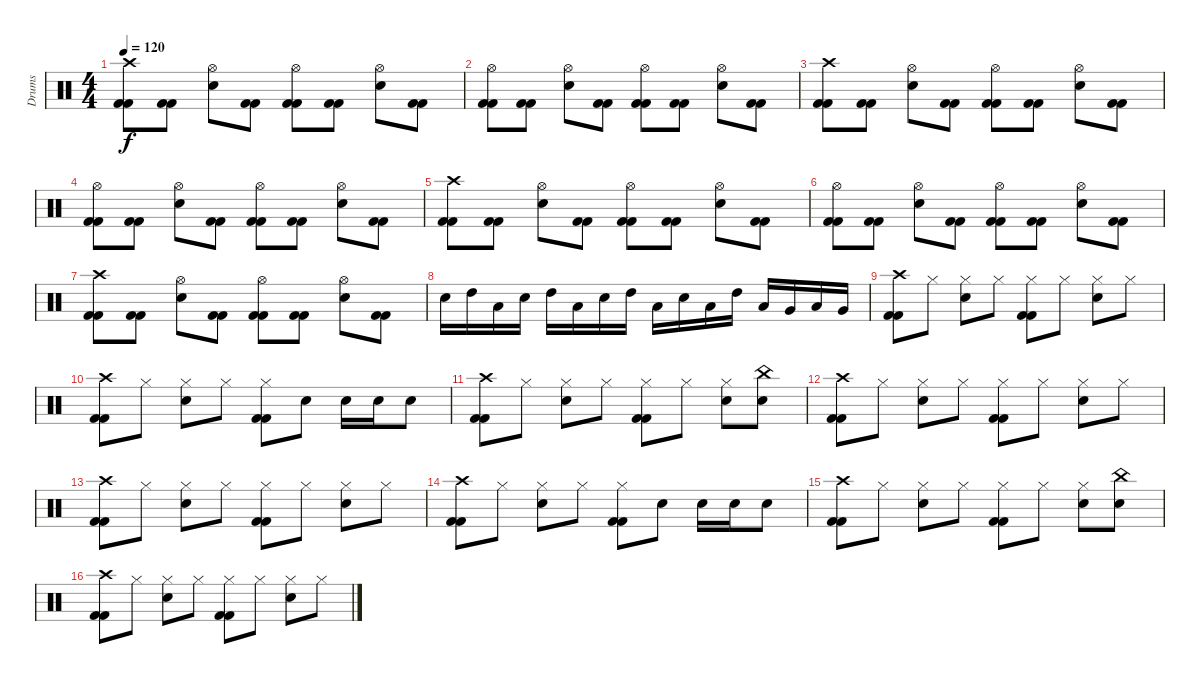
\track ("Drums" "Drums") {instrument percussion}
\staff {score}
\articulation defaults
\ts (4 4)
\tempo 120
\clef neutral
\ks c
("Crash high (hit)" "Kick (hit) 2" "Kick (hit) 2").8{dy f} ("Kick (hit) 2" "Kick (hit) 2").8 ("Hi-Hat (open)" "Electric Snare (hit)").8 ("Kick (hit) 2" "Kick (hit) 2").8 ("Hi-Hat (open)" "Kick (hit) 2" "Kick (hit) 2").8 ("Kick (hit) 2" "Kick (hit) 2").8 ("Electric Snare (hit)" "Hi-Hat (open)").8 ("Kick (hit) 2" "Kick (hit) 2").8 |
("Hi-Hat (open)" "Kick (hit) 2" "Kick (hit) 2").8 ("Kick (hit) 2" "Kick (hit) 2").8 ("Hi-Hat (open)" "Electric Snare (hit)").8 ("Kick (hit) 2" "Kick (hit) 2").8 ("Hi-Hat (open)" "Kick (hit) 2" "Kick (hit) 2").8 ("Kick (hit) 2" "Kick (hit) 2").8 ("Electric Snare (hit)" "Hi-Hat (open)").8 ("Kick (hit) 2" "Kick (hit) 2").8 |
("Crash high (hit)" "Kick (hit) 2" "Kick (hit) 2").8 ("Kick (hit) 2" "Kick (hit) 2").8 ("Hi-Hat (open)" "Electric Snare (hit)").8 ("Kick (hit) 2" "Kick (hit) 2").8 ("Hi-Hat (open)" "Kick (hit) 2" "Kick (hit) 2").8 ("Kick (hit) 2" "Kick (hit) 2").8 ("Electric Snare (hit)" "Hi-Hat (open)").8 ("Kick (hit) 2" "Kick (hit) 2").8 |
("Hi-Hat (open)" "Kick (hit) 2" "Kick (hit) 2").8 ("Kick (hit) 2" "Kick (hit) 2").8 ("Hi-Hat (open)" "Electric Snare (hit)").8 ("Kick (hit) 2" "Kick (hit) 2").8 ("Hi-Hat (open)" "Kick (hit) 2" "Kick (hit) 2").8 ("Kick (hit) 2" "Kick (hit) 2").8 ("Electric Snare (hit)" "Hi-Hat (open)").8 ("Kick (hit) 2" "Kick (hit) 2").8 |
("Crash high (hit)" "Kick (hit) 2" "Kick (hit) 2").8 ("Kick (hit) 2" "Kick (hit) 2").8 ("Hi-Hat (open)" "Electric Snare (hit)").8 ("Kick (hit) 2" "Kick (hit) 2").8 ("Hi-Hat (open)" "Kick (hit) 2" "Kick (hit) 2").8 ("Kick (hit) 2" "Kick (hit) 2").8 ("Electric Snare (hit)" "Hi-Hat (open)").8 ("Kick (hit) 2" "Kick (hit) 2").8 |
("Hi-Hat (open)" "Kick (hit) 2" "Kick (hit) 2").8 ("Kick (hit) 2" "Kick (hit) 2").8 ("Hi-Hat (open)" "Electric Snare (hit)").8 ("Kick (hit) 2" "Kick (hit) 2").8 ("Hi-Hat (open)" "Kick (hit) 2" "Kick (hit) 2").8 ("Kick (hit) 2" "Kick (hit) 2").8 ("Electric Snare (hit)" "Hi-Hat (open)").8 ("Kick (hit) 2" "Kick (hit) 2").8 |
("Crash high (hit)" "Kick (hit) 2" "Kick (hit) 2").8 ("Kick (hit) 2" "Kick (hit) 2").8 ("Hi-Hat (open)" "Electric Snare (hit)").8 ("Kick (hit) 2" "Kick (hit) 2").8 ("Hi-Hat (open)" "Kick (hit) 2" "Kick (hit) 2").8 ("Kick (hit) 2" "Kick (hit) 2").8 ("Electric Snare (hit)" "Hi-Hat (open)").8 ("Kick (hit) 2" "Kick (hit) 2").8 |
"Electric Snare (hit)".16 "High Tom (hit)".16 "Low Tom (hit)".16 "Electric Snare (hit)".16 "High Tom (hit)".16 "Low Tom (hit)".16 "Electric Snare (hit)".16 "High Tom (hit)".16 "Low Tom (hit)".16 "Electric Snare (hit)".16 "Low Tom (hit)".16 "High Tom (hit)".16 "Low Tom (hit)".16 "Very Low Tom (hit)".16 "Low Floor Tom (hit)".16 "Very Low Tom (hit)".16 |
("Crash high (hit)" "Kick (hit) 2" "Kick (hit) 2").8 "Hi-Hat (closed)".8 ("Electric Snare (hit)" "Hi-Hat (closed)").8 "Hi-Hat (closed)".8 ("Hi-Hat (closed)" "Kick (hit) 2" "Kick (hit) 2").8 "Hi-Hat (closed)".8 ("Electric Snare (hit)" "Hi-Hat (closed)").8 "Hi-Hat (closed)".8 |
("Crash high (hit)" "Kick (hit) 2" "Kick (hit) 2").8 "Hi-Hat (closed)".8 ("Electric Snare (hit)" "Hi-Hat (closed)").8 "Hi-Hat (closed)".8 ("Hi-Hat (closed)" "Kick (hit) 2" "Kick (hit) 2").8 "Electric Snare (hit)".8 "Electric Snare (hit)".16 "Electric Snare (hit)".16 "Electric Snare (hit)".8 |
("Crash high (hit)" "Kick (hit) 2" "Kick (hit) 2").8 "Hi-Hat (closed)".8 ("Electric Snare (hit)" "Hi-Hat (closed)").8 "Hi-Hat (closed)".8 ("Hi-Hat (closed)" "Kick (hit) 2" "Kick (hit) 2").8 "Hi-Hat (closed)".8 ("Electric Snare (hit)" "Hi-Hat (closed)").8 ("China (hit)" "Electric Snare (hit)").8 |
("Crash high (hit)" "Kick (hit) 2" "Kick (hit) 2").8 "Hi-Hat (closed)".8 ("Electric Snare (hit)" "Hi-Hat (closed)").8 "Hi-Hat (closed)".8 ("Hi-Hat (closed)" "Kick (hit) 2" "Kick (hit) 2").8 "Hi-Hat (closed)".8 ("Electric Snare (hit)" "Hi-Hat (closed)").8 "Hi-Hat (closed)".8 |
("Crash high (hit)" "Kick (hit) 2" "Kick (hit) 2").8 "Hi-Hat (closed)".8 ("Electric Snare (hit)" "Hi-Hat (closed)").8 "Hi-Hat (closed)".8 ("Hi-Hat (closed)" "Kick (hit) 2" "Kick (hit) 2").8 "Hi-Hat (closed)".8 ("Electric Snare (hit)" "Hi-Hat (closed)").8 "Hi-Hat (closed)".8 |
("Crash high (hit)" "Kick (hit) 2" "Kick (hit) 2").8 "Hi-Hat (closed)".8 ("Electric Snare (hit)" "Hi-Hat (closed)").8 "Hi-Hat (closed)".8 ("Hi-Hat (closed)" "Kick (hit) 2" "Kick (hit) 2").8 "Electric Snare (hit)".8 "Electric Snare (hit)".16 "Electric Snare (hit)".16 "Electric Snare (hit)".8 |
("Crash high (hit)" "Kick (hit) 2" "Kick (hit) 2").8 "Hi-Hat (closed)".8 ("Electric Snare (hit)" "Hi-Hat (closed)").8 "Hi-Hat (closed)".8 ("Hi-Hat (closed)" "Kick (hit) 2" "Kick (hit) 2").8 "Hi-Hat (closed)".8 ("Electric Snare (hit)" "Hi-Hat (closed)").8 ("China (hit)" "Electric Snare (hit)").8 |
("Crash high (hit)" "Kick (hit) 2" "Kick (hit) 2").8 "Hi-Hat (closed)".8 ("Electric Snare (hit)" "Hi-Hat (closed)").8 "Hi-Hat (closed)".8 ("Hi-Hat (closed)" "Kick (hit) 2" "Kick (hit) 2").8 "Hi-Hat (closed)".8 ("Electric Snare (hit)" "Hi-Hat (closed)").8 "Hi-Hat (closed)".8
